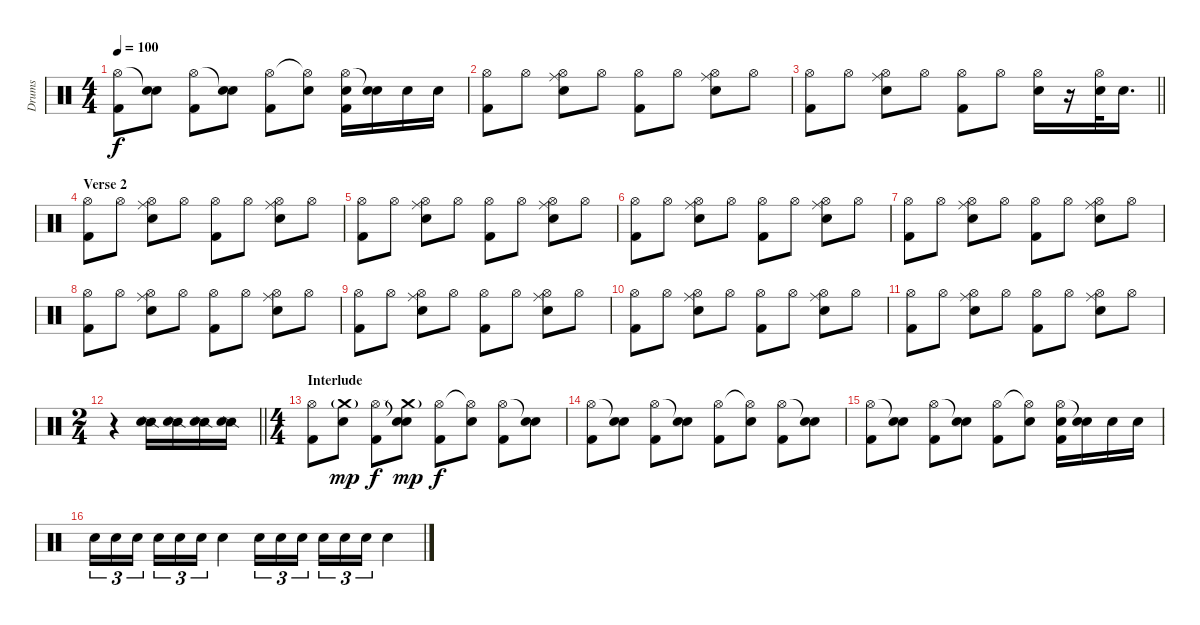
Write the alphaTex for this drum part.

\track ("Drums" "Drums") {instrument percussion}
\staff {score}
\articulation defaults
\ts (4 4)
\tempo 100
\clef neutral
\ks c
("Hi-Hat (open)" "Kick (hit) 2").8{dy f} ("Snare (hit)"{t} "Snare (hit) 2").8 ("Hi-Hat (open)" "Kick (hit) 2").8 ("Snare (hit)"{t} "Snare (hit) 2").8 ("Hi-Hat (open)" "Kick (hit) 2").8 ("Hi-Hat (open)"{t} "Snare (hit) 2").8 ("Hi-Hat (open)" "Snare (hit) 2" "Kick (hit) 2").16 ("Snare (hit)"{t} "Snare (hit) 2").16 "Snare (hit) 2".16 "Snare (hit) 2".16 |
("Hi-Hat (open)" "Kick (hit) 2").8 "Hi-Hat (open)".8 ("Hi-Hat (open)" "Ride (middle)" "Snare (hit) 2").8 "Hi-Hat (open)".8 ("Hi-Hat (open)" "Kick (hit) 2").8 "Hi-Hat (open)".8 ("Hi-Hat (open)" "Ride (middle)" "Snare (hit) 2").8 "Hi-Hat (open)".8 |
\barLineRight lightlight
("Hi-Hat (open)" "Kick (hit) 2").8 "Hi-Hat (open)".8 ("Hi-Hat (open)" "Ride (middle)" "Snare (hit) 2").8 "Hi-Hat (open)".8 ("Hi-Hat (open)" "Kick (hit) 2").8 "Hi-Hat (open)".8 ("Hi-Hat (open)" "Snare (hit) 2").16 r.16 ("Hi-Hat (open)" "Snare (hit) 2").32 "Snare (hit) 2".16{d} |
\section ("" "Verse 2")
("Hi-Hat (open)" "Kick (hit) 2").8 "Hi-Hat (open)".8 ("Hi-Hat (open)" "Ride (middle)" "Snare (hit) 2").8 "Hi-Hat (open)".8 ("Hi-Hat (open)" "Kick (hit) 2").8 "Hi-Hat (open)".8 ("Hi-Hat (open)" "Ride (middle)" "Snare (hit) 2").8 "Hi-Hat (open)".8 |
("Hi-Hat (open)" "Kick (hit) 2").8 "Hi-Hat (open)".8 ("Hi-Hat (open)" "Ride (middle)" "Snare (hit) 2").8 "Hi-Hat (open)".8 ("Hi-Hat (open)" "Kick (hit) 2").8 "Hi-Hat (open)".8 ("Hi-Hat (open)" "Ride (middle)" "Snare (hit) 2").8 "Hi-Hat (open)".8 |
("Hi-Hat (open)" "Kick (hit) 2").8 "Hi-Hat (open)".8 ("Hi-Hat (open)" "Ride (middle)" "Snare (hit) 2").8 "Hi-Hat (open)".8 ("Hi-Hat (open)" "Kick (hit) 2").8 "Hi-Hat (open)".8 ("Hi-Hat (open)" "Ride (middle)" "Snare (hit) 2").8 "Hi-Hat (open)".8 |
("Hi-Hat (open)" "Kick (hit) 2").8 "Hi-Hat (open)".8 ("Hi-Hat (open)" "Ride (middle)" "Snare (hit) 2").8 "Hi-Hat (open)".8 ("Hi-Hat (open)" "Kick (hit) 2").8 "Hi-Hat (open)".8 ("Hi-Hat (open)" "Ride (middle)" "Snare (hit) 2").8 "Hi-Hat (open)".8 |
("Hi-Hat (open)" "Kick (hit) 2").8 "Hi-Hat (open)".8 ("Hi-Hat (open)" "Ride (middle)" "Snare (hit) 2").8 "Hi-Hat (open)".8 ("Hi-Hat (open)" "Kick (hit) 2").8 "Hi-Hat (open)".8 ("Hi-Hat (open)" "Ride (middle)" "Snare (hit) 2").8 "Hi-Hat (open)".8 |
("Hi-Hat (open)" "Kick (hit) 2").8 "Hi-Hat (open)".8 ("Hi-Hat (open)" "Ride (middle)" "Snare (hit) 2").8 "Hi-Hat (open)".8 ("Hi-Hat (open)" "Kick (hit) 2").8 "Hi-Hat (open)".8 ("Hi-Hat (open)" "Ride (middle)" "Snare (hit) 2").8 "Hi-Hat (open)".8 |
("Hi-Hat (open)" "Kick (hit) 2").8 "Hi-Hat (open)".8 ("Hi-Hat (open)" "Ride (middle)" "Snare (hit) 2").8 "Hi-Hat (open)".8 ("Hi-Hat (open)" "Kick (hit) 2").8 "Hi-Hat (open)".8 ("Hi-Hat (open)" "Ride (middle)" "Snare (hit) 2").8 "Hi-Hat (open)".8 |
("Hi-Hat (open)" "Kick (hit) 2").8 "Hi-Hat (open)".8 ("Hi-Hat (open)" "Ride (middle)" "Snare (hit) 2").8 "Hi-Hat (open)".8 ("Hi-Hat (open)" "Kick (hit) 2").8 "Hi-Hat (open)".8 ("Hi-Hat (open)" "Ride (middle)" "Snare (hit) 2").8 "Hi-Hat (open)".8 |
\ts (2 4)
\barLineRight lightlight
r.4 ("Snare (side stick) 2" "Snare (hit) 2").16 ("Snare (side stick) 2" "Snare (hit) 2").16 ("Snare (side stick) 2" "Snare (hit) 2").16 ("Snare (side stick) 2" "Snare (hit) 2").16 |
\ts (4 4)
\section ("" "Interlude")
("Hi-Hat (open)" "Kick (hit) 2").8 ("Crash medium (hit)"{g} "Snare (hit) 2").8{dy mp} ("Hi-Hat (open)" "Kick (hit) 2").8{dy f} ("Snare (hit)"{t} "Crash medium (hit)"{g} "Snare (hit) 2").8{dy mp} ("Hi-Hat (open)" "Kick (hit) 2").8{dy f} ("Hi-Hat (open)"{t} "Snare (hit) 2").8 ("Hi-Hat (open)" "Kick (hit) 2").8 ("Snare (hit)"{t} "Snare (hit) 2").8 |
("Hi-Hat (open)" "Kick (hit) 2").8 ("Snare (hit)"{t} "Snare (hit) 2").8 ("Hi-Hat (open)" "Kick (hit) 2").8 ("Snare (hit)"{t} "Snare (hit) 2").8 ("Hi-Hat (open)" "Kick (hit) 2").8 ("Hi-Hat (open)"{t} "Snare (hit) 2").8 ("Hi-Hat (open)" "Kick (hit) 2").8 ("Snare (hit)"{t} "Snare (hit) 2").8 |
("Hi-Hat (open)" "Kick (hit) 2").8 ("Snare (hit)"{t} "Snare (hit) 2").8 ("Hi-Hat (open)" "Kick (hit) 2").8 ("Snare (hit)"{t} "Snare (hit) 2").8 ("Hi-Hat (open)" "Kick (hit) 2").8 ("Hi-Hat (open)"{t} "Snare (hit) 2").8 ("Hi-Hat (open)" "Snare (hit) 2" "Kick (hit) 2").16 ("Snare (hit)"{t} "Snare (hit) 2").16 "Snare (hit) 2".16 "Snare (hit) 2".16 |
"Snare (hit) 2".16{tu (3 2)} "Snare (hit) 2".16{tu (3 2)} "Snare (hit) 2".16{tu (3 2) beam splitsecondary} "Snare (hit) 2".16{tu (3 2)} "Snare (hit) 2".16{tu (3 2)} "Snare (hit) 2".16{tu (3 2)} "Snare (hit) 2".4 "Snare (hit) 2".16{tu (3 2)} "Snare (hit) 2".16{tu (3 2)} "Snare (hit) 2".16{tu (3 2) beam splitsecondary} "Snare (hit) 2".16{tu (3 2)} "Snare (hit) 2".16{tu (3 2)} "Snare (hit) 2".16{tu (3 2)} "Snare (hit) 2".4
